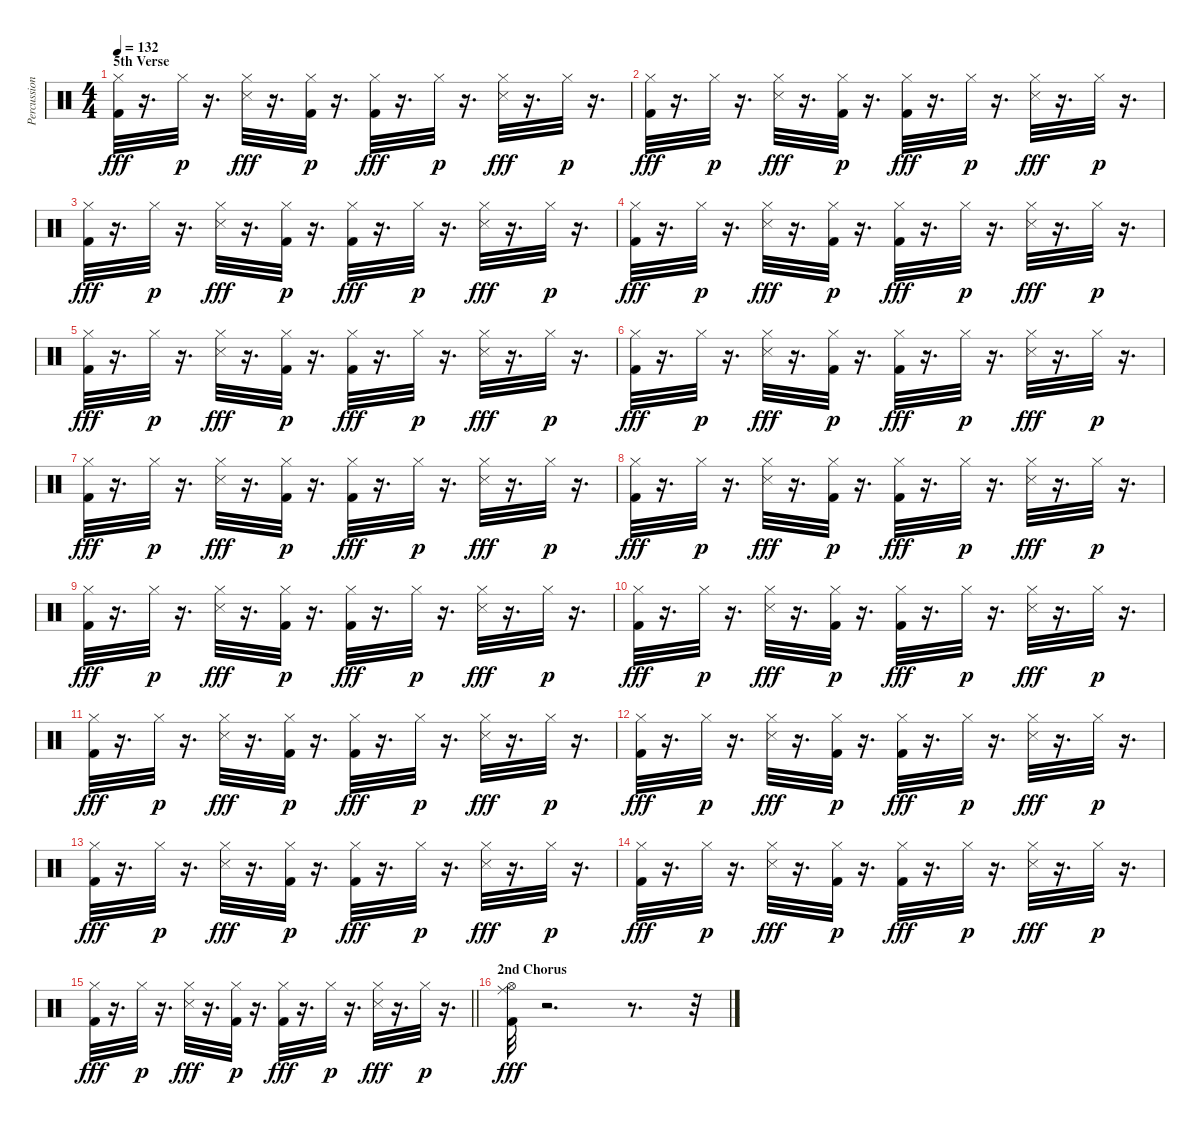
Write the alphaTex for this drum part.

\track ("Percussion" "Percussion") {instrument percussion}
\staff {score}
\articulation defaults
\ts (4 4)
\section ("" "5th Verse")
\tempo 132
\clef neutral
\ks c
("Kick (hit) 2" "Hi-Hat (closed)").32{dy fff} r.16{d} "Hi-Hat (closed)".32{dy p} r.16{d} ("Snare (side stick) 3" "Hi-Hat (closed)").32{dy fff} r.16{d} ("Kick (hit) 2" "Hi-Hat (closed)").32{dy p} r.16{d} ("Kick (hit) 2" "Hi-Hat (closed)").32{dy fff} r.16{d} "Hi-Hat (closed)".32{dy p} r.16{d} ("Snare (side stick) 3" "Hi-Hat (closed)").32{dy fff} r.16{d} "Hi-Hat (closed)".32{dy p} r.16{d} |
("Kick (hit) 2" "Hi-Hat (closed)").32{dy fff} r.16{d} "Hi-Hat (closed)".32{dy p} r.16{d} ("Snare (side stick) 3" "Hi-Hat (closed)").32{dy fff} r.16{d} ("Kick (hit) 2" "Hi-Hat (closed)").32{dy p} r.16{d} ("Kick (hit) 2" "Hi-Hat (closed)").32{dy fff} r.16{d} "Hi-Hat (closed)".32{dy p} r.16{d} ("Snare (side stick) 3" "Hi-Hat (closed)").32{dy fff} r.16{d} "Hi-Hat (closed)".32{dy p} r.16{d} |
("Kick (hit) 2" "Hi-Hat (closed)").32{dy fff} r.16{d} "Hi-Hat (closed)".32{dy p} r.16{d} ("Hi-Hat (closed)" "Snare (side stick) 3").32{dy fff} r.16{d} ("Kick (hit) 2" "Hi-Hat (closed)").32{dy p} r.16{d} ("Kick (hit) 2" "Hi-Hat (closed)").32{dy fff} r.16{d} "Hi-Hat (closed)".32{dy p} r.16{d} ("Snare (side stick) 3" "Hi-Hat (closed)").32{dy fff} r.16{d} "Hi-Hat (closed)".32{dy p} r.16{d} |
("Kick (hit) 2" "Hi-Hat (closed)").32{dy fff} r.16{d} "Hi-Hat (closed)".32{dy p} r.16{d} ("Hi-Hat (closed)" "Snare (side stick) 3").32{dy fff} r.16{d} ("Kick (hit) 2" "Hi-Hat (closed)").32{dy p} r.16{d} ("Kick (hit) 2" "Hi-Hat (closed)").32{dy fff} r.16{d} "Hi-Hat (closed)".32{dy p} r.16{d} ("Snare (side stick) 3" "Hi-Hat (closed)").32{dy fff} r.16{d} "Hi-Hat (closed)".32{dy p} r.16{d} |
("Kick (hit) 2" "Hi-Hat (closed)").32{dy fff} r.16{d} "Hi-Hat (closed)".32{dy p} r.16{d} ("Snare (side stick) 3" "Hi-Hat (closed)").32{dy fff} r.16{d} ("Kick (hit) 2" "Hi-Hat (closed)").32{dy p} r.16{d} ("Kick (hit) 2" "Hi-Hat (closed)").32{dy fff} r.16{d} "Hi-Hat (closed)".32{dy p} r.16{d} ("Snare (side stick) 3" "Hi-Hat (closed)").32{dy fff} r.16{d} "Hi-Hat (closed)".32{dy p} r.16{d} |
("Kick (hit) 2" "Hi-Hat (closed)").32{dy fff} r.16{d} "Hi-Hat (closed)".32{dy p} r.16{d} ("Snare (side stick) 3" "Hi-Hat (closed)").32{dy fff} r.16{d} ("Kick (hit) 2" "Hi-Hat (closed)").32{dy p} r.16{d} ("Kick (hit) 2" "Hi-Hat (closed)").32{dy fff} r.16{d} "Hi-Hat (closed)".32{dy p} r.16{d} ("Hi-Hat (closed)" "Snare (side stick) 3").32{dy fff} r.16{d} "Hi-Hat (closed)".32{dy p} r.16{d} |
("Kick (hit) 2" "Hi-Hat (closed)").32{dy fff} r.16{d} "Hi-Hat (closed)".32{dy p} r.16{d} ("Snare (side stick) 3" "Hi-Hat (closed)").32{dy fff} r.16{d} ("Kick (hit) 2" "Hi-Hat (closed)").32{dy p} r.16{d} ("Kick (hit) 2" "Hi-Hat (closed)").32{dy fff} r.16{d} "Hi-Hat (closed)".32{dy p} r.16{d} ("Hi-Hat (closed)" "Snare (side stick) 3").32{dy fff} r.16{d} "Hi-Hat (closed)".32{dy p} r.16{d} |
("Kick (hit) 2" "Hi-Hat (closed)").32{dy fff} r.16{d} "Hi-Hat (closed)".32{dy p} r.16{d} ("Snare (side stick) 3" "Hi-Hat (closed)").32{dy fff} r.16{d} ("Kick (hit) 2" "Hi-Hat (closed)").32{dy p} r.16{d} ("Kick (hit) 2" "Hi-Hat (closed)").32{dy fff} r.16{d} "Hi-Hat (closed)".32{dy p} r.16{d} ("Hi-Hat (closed)" "Snare (side stick) 3").32{dy fff} r.16{d} "Hi-Hat (closed)".32{dy p} r.16{d} |
("Kick (hit) 2" "Hi-Hat (closed)").32{dy fff} r.16{d} "Hi-Hat (closed)".32{dy p} r.16{d} ("Snare (side stick) 3" "Hi-Hat (closed)").32{dy fff} r.16{d} ("Kick (hit) 2" "Hi-Hat (closed)").32{dy p} r.16{d} ("Kick (hit) 2" "Hi-Hat (closed)").32{dy fff} r.16{d} "Hi-Hat (closed)".32{dy p} r.16{d} ("Snare (side stick) 3" "Hi-Hat (closed)").32{dy fff} r.16{d} "Hi-Hat (closed)".32{dy p} r.16{d} |
("Kick (hit) 2" "Hi-Hat (closed)").32{dy fff} r.16{d} "Hi-Hat (closed)".32{dy p} r.16{d} ("Snare (side stick) 3" "Hi-Hat (closed)").32{dy fff} r.16{d} ("Kick (hit) 2" "Hi-Hat (closed)").32{dy p} r.16{d} ("Kick (hit) 2" "Hi-Hat (closed)").32{dy fff} r.16{d} "Hi-Hat (closed)".32{dy p} r.16{d} ("Hi-Hat (closed)" "Snare (side stick) 3").32{dy fff} r.16{d} "Hi-Hat (closed)".32{dy p} r.16{d} |
("Kick (hit) 2" "Hi-Hat (closed)").32{dy fff} r.16{d} "Hi-Hat (closed)".32{dy p} r.16{d} ("Hi-Hat (closed)" "Snare (side stick) 3").32{dy fff} r.16{d} ("Kick (hit) 2" "Hi-Hat (closed)").32{dy p} r.16{d} ("Kick (hit) 2" "Hi-Hat (closed)").32{dy fff} r.16{d} "Hi-Hat (closed)".32{dy p} r.16{d} ("Snare (side stick) 3" "Hi-Hat (closed)").32{dy fff} r.16{d} "Hi-Hat (closed)".32{dy p} r.16{d} |
("Kick (hit) 2" "Hi-Hat (closed)").32{dy fff} r.16{d} "Hi-Hat (closed)".32{dy p} r.16{d} ("Snare (side stick) 3" "Hi-Hat (closed)").32{dy fff} r.16{d} ("Kick (hit) 2" "Hi-Hat (closed)").32{dy p} r.16{d} ("Kick (hit) 2" "Hi-Hat (closed)").32{dy fff} r.16{d} "Hi-Hat (closed)".32{dy p} r.16{d} ("Hi-Hat (closed)" "Snare (side stick) 3").32{dy fff} r.16{d} "Hi-Hat (closed)".32{dy p} r.16{d} |
("Kick (hit) 2" "Hi-Hat (closed)").32{dy fff} r.16{d} "Hi-Hat (closed)".32{dy p} r.16{d} ("Hi-Hat (closed)" "Snare (side stick) 3").32{dy fff} r.16{d} ("Kick (hit) 2" "Hi-Hat (closed)").32{dy p} r.16{d} ("Kick (hit) 2" "Hi-Hat (closed)").32{dy fff} r.16{d} "Hi-Hat (closed)".32{dy p} r.16{d} ("Snare (side stick) 3" "Hi-Hat (closed)").32{dy fff} r.16{d} "Hi-Hat (closed)".32{dy p} r.16{d} |
("Kick (hit) 2" "Hi-Hat (closed)").32{dy fff} r.16{d} "Hi-Hat (closed)".32{dy p} r.16{d} ("Snare (side stick) 3" "Hi-Hat (closed)").32{dy fff} r.16{d} ("Kick (hit) 2" "Hi-Hat (closed)").32{dy p} r.16{d} ("Kick (hit) 2" "Hi-Hat (closed)").32{dy fff} r.16{d} "Hi-Hat (closed)".32{dy p} r.16{d} ("Hi-Hat (closed)" "Snare (side stick) 3").32{dy fff} r.16{d} "Hi-Hat (closed)".32{dy p} r.16{d} |
\barLineRight lightlight
("Kick (hit) 2" "Hi-Hat (closed)").32{dy fff} r.16{d} "Hi-Hat (closed)".32{dy p} r.16{d} ("Hi-Hat (closed)" "Snare (side stick) 3").32{dy fff} r.16{d} ("Kick (hit) 2" "Hi-Hat (closed)").32{dy p} r.16{d} ("Kick (hit) 2" "Hi-Hat (closed)").32{dy fff} r.16{d} "Hi-Hat (closed)".32{dy p} r.16{d} ("Snare (side stick) 3" "Hi-Hat (closed)").32{dy fff} r.16{d} "Hi-Hat (closed)".32{dy p} r.16{d} |
\section ("" "2nd Chorus")
("Kick (hit) 2" "Hi-Hat (open)" "Ride (middle)").32{dy fff} r.2{d} r.8{d} r.32
